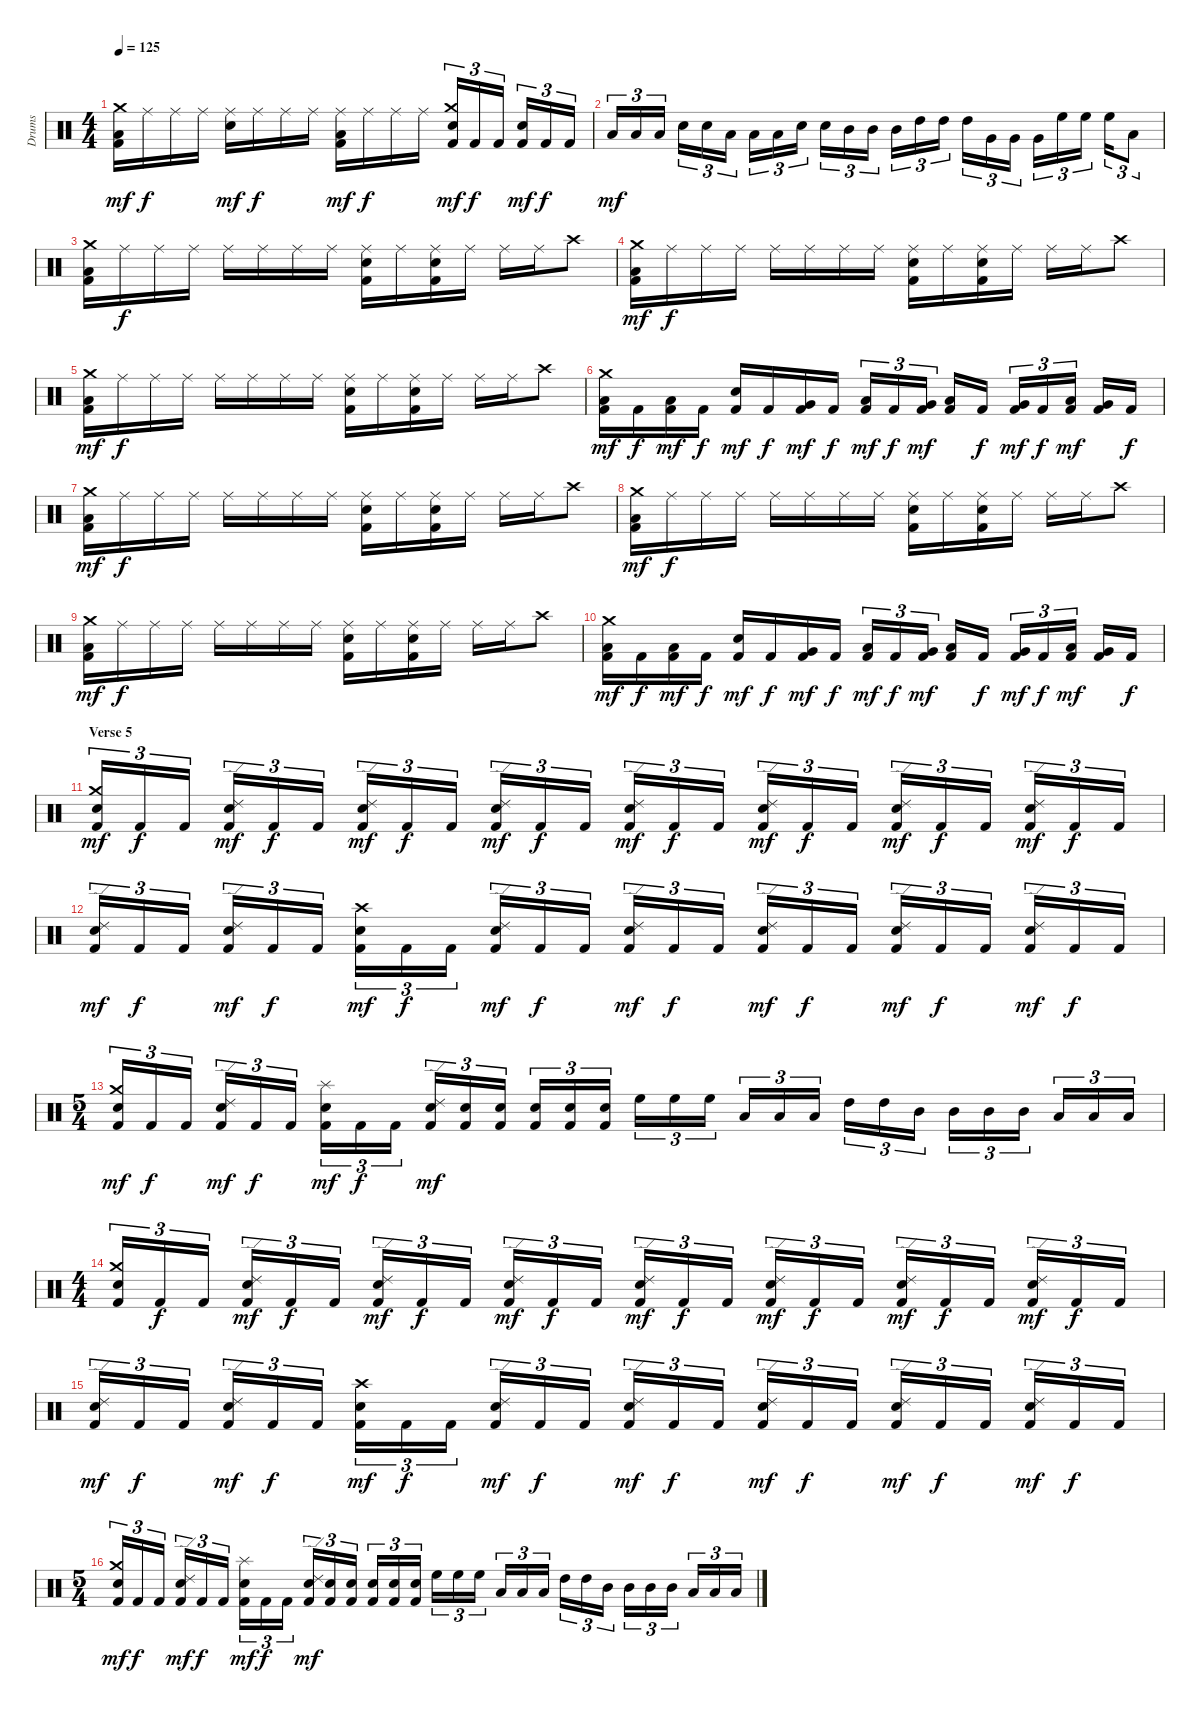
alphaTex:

\track ("Drums" "Drums") {instrument percussion}
\staff {score}
\articulation defaults
\ts (4 4)
\tempo 125
\clef neutral
\ks c
("Kick (hit) 2" "Low Floor Tom (hit)" "Crash medium (hit)").16{dy mf} "Ride (middle)".16{dy f} "Ride (middle)".16 "Ride (middle)".16 ("Electric Snare (hit)" "Ride (middle)").16{dy mf} "Ride (middle)".16{dy f} "Ride (middle)".16 "Ride (middle)".16 ("Kick (hit) 2" "Low Floor Tom (hit)" "Ride (middle)").16{dy mf} "Ride (middle)".16{dy f} "Ride (middle)".16 "Ride (middle)".16 ("Kick (hit) 2" "Electric Snare (hit)" "Crash medium (hit)").16{tu (3 2) dy mf} "Kick (hit) 2".16{tu (3 2) dy f} "Kick (hit) 2".16{tu (3 2)} ("Kick (hit) 2" "Electric Snare (hit)").16{tu (3 2) dy mf} "Kick (hit) 2".16{tu (3 2) dy f} "Kick (hit) 2".16{tu (3 2)} |
"Low Floor Tom (hit)".16{tu (3 2) dy mf} "Low Floor Tom (hit)".16{tu (3 2)} "Low Floor Tom (hit)".16{tu (3 2)} "Electric Snare (hit)".16{tu (3 2)} "Electric Snare (hit)".16{tu (3 2)} "Low Tom (hit)".16{tu (3 2)} "Low Tom (hit)".16{tu (3 2)} "Low Tom (hit)".16{tu (3 2)} "Electric Snare (hit)".16{tu (3 2)} "Electric Snare (hit)".16{tu (3 2)} "Mid Tom (hit)".16{tu (3 2)} "Mid Tom (hit)".16{tu (3 2)} "Mid Tom (hit)".16{tu (3 2)} "High Tom (hit)".16{tu (3 2)} "High Tom (hit)".16{tu (3 2)} "High Tom (hit)".16{tu (3 2)} "Very Low Tom (hit)".16{tu (3 2)} "Very Low Tom (hit)".16{tu (3 2)} "Very Low Tom (hit)".16{tu (3 2)} "High Floor Tom (hit)".16{tu (3 2)} "High Floor Tom (hit)".16{tu (3 2)} "High Floor Tom (hit)".16{tu (3 2)} "Low Floor Tom (hit)".8{tu (3 2)} |
("Kick (hit) 2" "Low Floor Tom (hit)" "Crash medium (hit)").16 "Ride (middle)".16{dy f} "Ride (middle)".16 "Ride (middle)".16 "Ride (middle)".16 "Ride (middle)".16 "Ride (middle)".16 "Ride (middle)".16 ("Kick (hit) 2" "Electric Snare (hit)" "Ride (middle)").16 "Ride (middle)".16 ("Kick (hit) 2" "Electric Snare (hit)" "Ride (middle)").16 "Ride (middle)".16 "Ride (middle)".16 "Ride (middle)".16 "Crash high (hit)".8 |
("Kick (hit) 2" "Low Floor Tom (hit)" "Crash medium (hit)").16{dy mf} "Ride (middle)".16{dy f} "Ride (middle)".16 "Ride (middle)".16 "Ride (middle)".16 "Ride (middle)".16 "Ride (middle)".16 "Ride (middle)".16 ("Kick (hit) 2" "Electric Snare (hit)" "Ride (middle)").16 "Ride (middle)".16 ("Kick (hit) 2" "Electric Snare (hit)" "Ride (middle)").16 "Ride (middle)".16 "Ride (middle)".16 "Ride (middle)".16 "Crash high (hit)".8 |
("Kick (hit) 2" "Low Floor Tom (hit)" "Crash medium (hit)").16{dy mf} "Ride (middle)".16{dy f} "Ride (middle)".16 "Ride (middle)".16 "Ride (middle)".16 "Ride (middle)".16 "Ride (middle)".16 "Ride (middle)".16 ("Kick (hit) 2" "Electric Snare (hit)" "Ride (middle)").16 "Ride (middle)".16 ("Kick (hit) 2" "Electric Snare (hit)" "Ride (middle)").16 "Ride (middle)".16 "Ride (middle)".16 "Ride (middle)".16 "Crash high (hit)".8 |
("Kick (hit) 2" "Low Floor Tom (hit)" "Crash medium (hit)").16{dy mf} "Kick (hit) 2".16{dy f} ("Kick (hit) 2" "Low Floor Tom (hit)").16{dy mf} "Kick (hit) 2".16{dy f} ("Kick (hit) 2" "Electric Snare (hit)").16{dy mf} "Kick (hit) 2".16{dy f} ("Kick (hit) 2" "Very Low Tom (hit)").16{dy mf} "Kick (hit) 2".16{dy f} ("Kick (hit) 2" "Low Floor Tom (hit)").16{tu (3 2) dy mf} "Kick (hit) 2".16{tu (3 2) dy f} ("Kick (hit) 2" "Very Low Tom (hit)").16{tu (3 2) dy mf} ("Kick (hit) 2" "Low Floor Tom (hit)").16 "Kick (hit) 2".16{dy f} ("Kick (hit) 2" "Very Low Tom (hit)").16{tu (3 2) dy mf} "Kick (hit) 2".16{tu (3 2) dy f} ("Kick (hit) 2" "Low Floor Tom (hit)").16{tu (3 2) dy mf} ("Kick (hit) 2" "Very Low Tom (hit)").16 "Kick (hit) 2".16{dy f} |
("Kick (hit) 2" "Low Floor Tom (hit)" "Crash medium (hit)").16{dy mf} "Ride (middle)".16{dy f} "Ride (middle)".16 "Ride (middle)".16 "Ride (middle)".16 "Ride (middle)".16 "Ride (middle)".16 "Ride (middle)".16 ("Kick (hit) 2" "Electric Snare (hit)" "Ride (middle)").16 "Ride (middle)".16 ("Kick (hit) 2" "Electric Snare (hit)" "Ride (middle)").16 "Ride (middle)".16 "Ride (middle)".16 "Ride (middle)".16 "Crash high (hit)".8 |
("Kick (hit) 2" "Low Floor Tom (hit)" "Crash medium (hit)").16{dy mf} "Ride (middle)".16{dy f} "Ride (middle)".16 "Ride (middle)".16 "Ride (middle)".16 "Ride (middle)".16 "Ride (middle)".16 "Ride (middle)".16 ("Kick (hit) 2" "Electric Snare (hit)" "Ride (middle)").16 "Ride (middle)".16 ("Kick (hit) 2" "Electric Snare (hit)" "Ride (middle)").16 "Ride (middle)".16 "Ride (middle)".16 "Ride (middle)".16 "Crash high (hit)".8 |
("Kick (hit) 2" "Low Floor Tom (hit)" "Crash medium (hit)").16{dy mf} "Ride (middle)".16{dy f} "Ride (middle)".16 "Ride (middle)".16 "Ride (middle)".16 "Ride (middle)".16 "Ride (middle)".16 "Ride (middle)".16 ("Kick (hit) 2" "Electric Snare (hit)" "Ride (middle)").16 "Ride (middle)".16 ("Kick (hit) 2" "Electric Snare (hit)" "Ride (middle)").16 "Ride (middle)".16 "Ride (middle)".16 "Ride (middle)".16 "Crash high (hit)".8 |
("Kick (hit) 2" "Low Floor Tom (hit)" "Crash medium (hit)").16{dy mf} "Kick (hit) 2".16{dy f} ("Kick (hit) 2" "Low Floor Tom (hit)").16{dy mf} "Kick (hit) 2".16{dy f} ("Kick (hit) 2" "Electric Snare (hit)").16{dy mf} "Kick (hit) 2".16{dy f} ("Kick (hit) 2" "Very Low Tom (hit)").16{dy mf} "Kick (hit) 2".16{dy f} ("Kick (hit) 2" "Low Floor Tom (hit)").16{tu (3 2) dy mf} "Kick (hit) 2".16{tu (3 2) dy f} ("Kick (hit) 2" "Very Low Tom (hit)").16{tu (3 2) dy mf} ("Kick (hit) 2" "Low Floor Tom (hit)").16 "Kick (hit) 2".16{dy f} ("Kick (hit) 2" "Very Low Tom (hit)").16{tu (3 2) dy mf} "Kick (hit) 2".16{tu (3 2) dy f} ("Kick (hit) 2" "Low Floor Tom (hit)").16{tu (3 2) dy mf} ("Kick (hit) 2" "Very Low Tom (hit)").16 "Kick (hit) 2".16{dy f} |
\section ("" "Verse 5")
("Kick (hit) 2" "Electric Snare (hit)" "Crash medium (hit)").16{tu (3 2) dy mf} "Kick (hit) 2".16{tu (3 2) dy f} "Kick (hit) 2".16{tu (3 2)} ("Kick (hit) 2" "Electric Snare (hit)" "Ride (edge) 2").16{tu (3 2) dy mf} "Kick (hit) 2".16{tu (3 2) dy f} "Kick (hit) 2".16{tu (3 2)} ("Kick (hit) 2" "Electric Snare (hit)" "Ride (edge) 2").16{tu (3 2) dy mf} "Kick (hit) 2".16{tu (3 2) dy f} "Kick (hit) 2".16{tu (3 2)} ("Kick (hit) 2" "Electric Snare (hit)" "Ride (edge) 2").16{tu (3 2) dy mf} "Kick (hit) 2".16{tu (3 2) dy f} "Kick (hit) 2".16{tu (3 2)} ("Kick (hit) 2" "Electric Snare (hit)" "Ride (edge) 2").16{tu (3 2) dy mf} "Kick (hit) 2".16{tu (3 2) dy f} "Kick (hit) 2".16{tu (3 2)} ("Kick (hit) 2" "Electric Snare (hit)" "Ride (edge) 2").16{tu (3 2) dy mf} "Kick (hit) 2".16{tu (3 2) dy f} "Kick (hit) 2".16{tu (3 2)} ("Kick (hit) 2" "Electric Snare (hit)" "Ride (edge) 2").16{tu (3 2) dy mf} "Kick (hit) 2".16{tu (3 2) dy f} "Kick (hit) 2".16{tu (3 2)} ("Kick (hit) 2" "Electric Snare (hit)" "Ride (edge) 2").16{tu (3 2) dy mf} "Kick (hit) 2".16{tu (3 2) dy f} "Kick (hit) 2".16{tu (3 2)} |
("Kick (hit) 2" "Electric Snare (hit)" "Ride (edge) 2").16{tu (3 2) dy mf} "Kick (hit) 2".16{tu (3 2) dy f} "Kick (hit) 2".16{tu (3 2)} ("Kick (hit) 2" "Electric Snare (hit)" "Ride (edge) 2").16{tu (3 2) dy mf} "Kick (hit) 2".16{tu (3 2) dy f} "Kick (hit) 2".16{tu (3 2)} ("Kick (hit) 2" "Electric Snare (hit)" "Crash high (hit)").16{tu (3 2) dy mf} "Kick (hit) 2".16{tu (3 2) dy f} "Kick (hit) 2".16{tu (3 2)} ("Kick (hit) 2" "Electric Snare (hit)" "Ride (edge) 2").16{tu (3 2) dy mf} "Kick (hit) 2".16{tu (3 2) dy f} "Kick (hit) 2".16{tu (3 2)} ("Kick (hit) 2" "Electric Snare (hit)" "Ride (edge) 2").16{tu (3 2) dy mf} "Kick (hit) 2".16{tu (3 2) dy f} "Kick (hit) 2".16{tu (3 2)} ("Kick (hit) 2" "Electric Snare (hit)" "Ride (edge) 2").16{tu (3 2) dy mf} "Kick (hit) 2".16{tu (3 2) dy f} "Kick (hit) 2".16{tu (3 2)} ("Kick (hit) 2" "Electric Snare (hit)" "Ride (edge) 2").16{tu (3 2) dy mf} "Kick (hit) 2".16{tu (3 2) dy f} "Kick (hit) 2".16{tu (3 2)} ("Kick (hit) 2" "Electric Snare (hit)" "Ride (edge) 2").16{tu (3 2) dy mf} "Kick (hit) 2".16{tu (3 2) dy f} "Kick (hit) 2".16{tu (3 2)} |
\ts (5 4)
("Kick (hit) 2" "Electric Snare (hit)" "Crash medium (hit)").16{tu (3 2) dy mf} "Kick (hit) 2".16{tu (3 2) dy f} "Kick (hit) 2".16{tu (3 2)} ("Kick (hit) 2" "Electric Snare (hit)" "Ride (edge) 2").16{tu (3 2) dy mf} "Kick (hit) 2".16{tu (3 2) dy f} "Kick (hit) 2".16{tu (3 2)} ("Kick (hit) 2" "Electric Snare (hit)" "Splash (hit)").16{tu (3 2) dy mf} "Kick (hit) 2".16{tu (3 2) dy f} "Kick (hit) 2".16{tu (3 2)} ("Kick (hit) 2" "Electric Snare (hit)" "Ride (edge) 2").16{tu (3 2) dy mf} ("Kick (hit) 2" "Electric Snare (hit)").16{tu (3 2)} ("Kick (hit) 2" "Electric Snare (hit)").16{tu (3 2)} ("Kick (hit) 2" "Electric Snare (hit)").16{tu (3 2)} ("Kick (hit) 2" "Electric Snare (hit)").16{tu (3 2)} ("Kick (hit) 2" "Electric Snare (hit)").16{tu (3 2)} "High Floor Tom (hit)".16{tu (3 2)} "High Floor Tom (hit)".16{tu (3 2)} "High Floor Tom (hit)".16{tu (3 2)} "Low Tom (hit)".16{tu (3 2)} "Low Tom (hit)".16{tu (3 2)} "Low Tom (hit)".16{tu (3 2)} "High Tom (hit)".16{tu (3 2)} "High Tom (hit)".16{tu (3 2)} "Mid Tom (hit)".16{tu (3 2)} "Mid Tom (hit)".16{tu (3 2)} "Mid Tom (hit)".16{tu (3 2)} "Mid Tom (hit)".16{tu (3 2)} "Low Floor Tom (hit)".16{tu (3 2)} "Low Floor Tom (hit)".16{tu (3 2)} "Low Floor Tom (hit)".16{tu (3 2)} |
\ts (4 4)
("Kick (hit) 2" "Electric Snare (hit)" "Crash medium (hit)").16{tu (3 2)} "Kick (hit) 2".16{tu (3 2) dy f} "Kick (hit) 2".16{tu (3 2)} ("Kick (hit) 2" "Electric Snare (hit)" "Ride (edge) 2").16{tu (3 2) dy mf} "Kick (hit) 2".16{tu (3 2) dy f} "Kick (hit) 2".16{tu (3 2)} ("Kick (hit) 2" "Electric Snare (hit)" "Ride (edge) 2").16{tu (3 2) dy mf} "Kick (hit) 2".16{tu (3 2) dy f} "Kick (hit) 2".16{tu (3 2)} ("Kick (hit) 2" "Electric Snare (hit)" "Ride (edge) 2").16{tu (3 2) dy mf} "Kick (hit) 2".16{tu (3 2) dy f} "Kick (hit) 2".16{tu (3 2)} ("Kick (hit) 2" "Electric Snare (hit)" "Ride (edge) 2").16{tu (3 2) dy mf} "Kick (hit) 2".16{tu (3 2) dy f} "Kick (hit) 2".16{tu (3 2)} ("Kick (hit) 2" "Electric Snare (hit)" "Ride (edge) 2").16{tu (3 2) dy mf} "Kick (hit) 2".16{tu (3 2) dy f} "Kick (hit) 2".16{tu (3 2)} ("Kick (hit) 2" "Electric Snare (hit)" "Ride (edge) 2").16{tu (3 2) dy mf} "Kick (hit) 2".16{tu (3 2) dy f} "Kick (hit) 2".16{tu (3 2)} ("Kick (hit) 2" "Electric Snare (hit)" "Ride (edge) 2").16{tu (3 2) dy mf} "Kick (hit) 2".16{tu (3 2) dy f} "Kick (hit) 2".16{tu (3 2)} |
("Kick (hit) 2" "Electric Snare (hit)" "Ride (edge) 2").16{tu (3 2) dy mf} "Kick (hit) 2".16{tu (3 2) dy f} "Kick (hit) 2".16{tu (3 2)} ("Kick (hit) 2" "Electric Snare (hit)" "Ride (edge) 2").16{tu (3 2) dy mf} "Kick (hit) 2".16{tu (3 2) dy f} "Kick (hit) 2".16{tu (3 2)} ("Kick (hit) 2" "Electric Snare (hit)" "Crash high (hit)").16{tu (3 2) dy mf} "Kick (hit) 2".16{tu (3 2) dy f} "Kick (hit) 2".16{tu (3 2)} ("Kick (hit) 2" "Electric Snare (hit)" "Ride (edge) 2").16{tu (3 2) dy mf} "Kick (hit) 2".16{tu (3 2) dy f} "Kick (hit) 2".16{tu (3 2)} ("Kick (hit) 2" "Electric Snare (hit)" "Ride (edge) 2").16{tu (3 2) dy mf} "Kick (hit) 2".16{tu (3 2) dy f} "Kick (hit) 2".16{tu (3 2)} ("Kick (hit) 2" "Electric Snare (hit)" "Ride (edge) 2").16{tu (3 2) dy mf} "Kick (hit) 2".16{tu (3 2) dy f} "Kick (hit) 2".16{tu (3 2)} ("Kick (hit) 2" "Electric Snare (hit)" "Ride (edge) 2").16{tu (3 2) dy mf} "Kick (hit) 2".16{tu (3 2) dy f} "Kick (hit) 2".16{tu (3 2)} ("Kick (hit) 2" "Electric Snare (hit)" "Ride (edge) 2").16{tu (3 2) dy mf} "Kick (hit) 2".16{tu (3 2) dy f} "Kick (hit) 2".16{tu (3 2)} |
\ts (5 4)
("Kick (hit) 2" "Electric Snare (hit)" "Crash medium (hit)").16{tu (3 2) dy mf} "Kick (hit) 2".16{tu (3 2) dy f} "Kick (hit) 2".16{tu (3 2)} ("Kick (hit) 2" "Electric Snare (hit)" "Ride (edge) 2").16{tu (3 2) dy mf} "Kick (hit) 2".16{tu (3 2) dy f} "Kick (hit) 2".16{tu (3 2)} ("Kick (hit) 2" "Electric Snare (hit)" "Splash (hit)").16{tu (3 2) dy mf} "Kick (hit) 2".16{tu (3 2) dy f} "Kick (hit) 2".16{tu (3 2)} ("Kick (hit) 2" "Electric Snare (hit)" "Ride (edge) 2").16{tu (3 2) dy mf} ("Kick (hit) 2" "Electric Snare (hit)").16{tu (3 2)} ("Kick (hit) 2" "Electric Snare (hit)").16{tu (3 2)} ("Kick (hit) 2" "Electric Snare (hit)").16{tu (3 2)} ("Kick (hit) 2" "Electric Snare (hit)").16{tu (3 2)} ("Kick (hit) 2" "Electric Snare (hit)").16{tu (3 2)} "High Floor Tom (hit)".16{tu (3 2)} "High Floor Tom (hit)".16{tu (3 2)} "High Floor Tom (hit)".16{tu (3 2)} "Low Tom (hit)".16{tu (3 2)} "Low Tom (hit)".16{tu (3 2)} "Low Tom (hit)".16{tu (3 2)} "High Tom (hit)".16{tu (3 2)} "High Tom (hit)".16{tu (3 2)} "Mid Tom (hit)".16{tu (3 2)} "Mid Tom (hit)".16{tu (3 2)} "Mid Tom (hit)".16{tu (3 2)} "Mid Tom (hit)".16{tu (3 2)} "Low Floor Tom (hit)".16{tu (3 2)} "Low Floor Tom (hit)".16{tu (3 2)} "Low Floor Tom (hit)".16{tu (3 2)}
